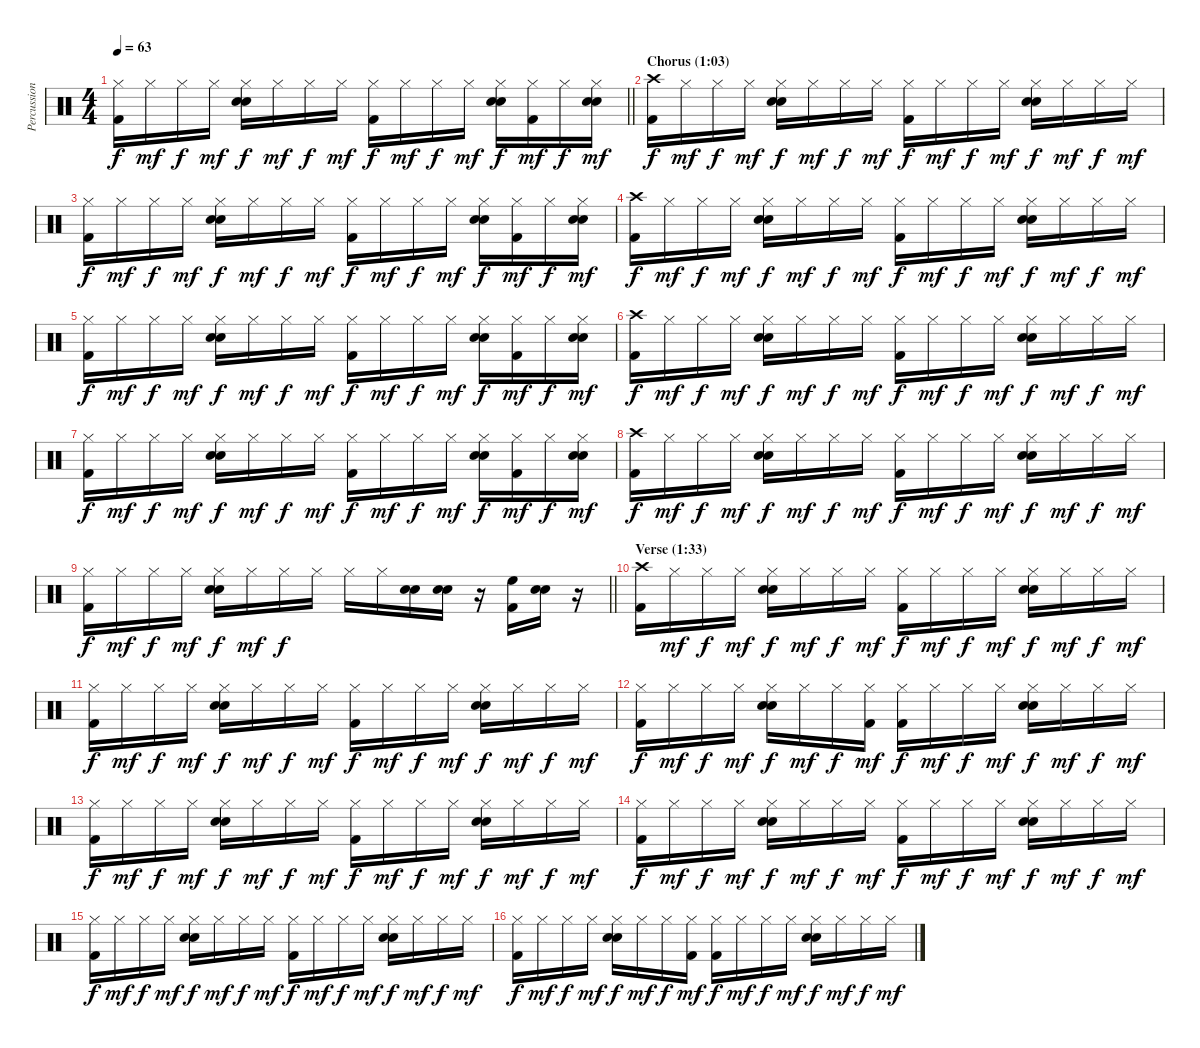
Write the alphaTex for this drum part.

\track ("Percussion" "Percussion") {instrument percussion}
\staff {score}
\articulation defaults
\ts (4 4)
\tempo 63
\clef neutral
\barLineRight lightlight
\ks c
("Hi-Hat (closed)" "Kick (hit) 2").16{dy f} "Hi-Hat (closed)".16{dy mf} "Hi-Hat (closed)".16{dy f} "Hi-Hat (closed)".16{dy mf} ("Hi-Hat (closed)" "Snare (hit) 2" "Electric Snare (hit)").16{dy f} "Hi-Hat (closed)".16{dy mf} "Hi-Hat (closed)".16{dy f} "Hi-Hat (closed)".16{dy mf} ("Hi-Hat (closed)" "Kick (hit) 2").16{dy f} "Hi-Hat (closed)".16{dy mf} "Hi-Hat (closed)".16{dy f} "Hi-Hat (closed)".16{dy mf} ("Hi-Hat (closed)" "Snare (hit) 2" "Electric Snare (hit)").16{dy f} ("Hi-Hat (closed)" "Kick (hit) 2").16{dy mf} "Hi-Hat (closed)".16{dy f} ("Hi-Hat (closed)" "Snare (hit) 2" "Electric Snare (hit)").16{dy mf} |
\section ("" "Chorus (1:03)")
("Crash high (hit)" "Kick (hit) 2").16{dy f} "Hi-Hat (closed)".16{dy mf} "Hi-Hat (closed)".16{dy f} "Hi-Hat (closed)".16{dy mf} ("Hi-Hat (closed)" "Snare (hit) 2" "Electric Snare (hit)").16{dy f} "Hi-Hat (closed)".16{dy mf} "Hi-Hat (closed)".16{dy f} "Hi-Hat (closed)".16{dy mf} ("Hi-Hat (closed)" "Kick (hit) 2").16{dy f} "Hi-Hat (closed)".16{dy mf} "Hi-Hat (closed)".16{dy f} "Hi-Hat (closed)".16{dy mf} ("Hi-Hat (closed)" "Snare (hit) 2" "Electric Snare (hit)").16{dy f} "Hi-Hat (closed)".16{dy mf} "Hi-Hat (closed)".16{dy f} "Hi-Hat (closed)".16{dy mf} |
("Hi-Hat (closed)" "Kick (hit) 2").16{dy f} "Hi-Hat (closed)".16{dy mf} "Hi-Hat (closed)".16{dy f} "Hi-Hat (closed)".16{dy mf} ("Hi-Hat (closed)" "Snare (hit) 2" "Electric Snare (hit)").16{dy f} "Hi-Hat (closed)".16{dy mf} "Hi-Hat (closed)".16{dy f} "Hi-Hat (closed)".16{dy mf} ("Hi-Hat (closed)" "Kick (hit) 2").16{dy f} "Hi-Hat (closed)".16{dy mf} "Hi-Hat (closed)".16{dy f} "Hi-Hat (closed)".16{dy mf} ("Hi-Hat (closed)" "Snare (hit) 2" "Electric Snare (hit)").16{dy f} ("Hi-Hat (closed)" "Kick (hit) 2").16{dy mf} "Hi-Hat (closed)".16{dy f} ("Hi-Hat (closed)" "Snare (hit) 2" "Electric Snare (hit)").16{dy mf} |
("Crash high (hit)" "Kick (hit) 2").16{dy f} "Hi-Hat (closed)".16{dy mf} "Hi-Hat (closed)".16{dy f} "Hi-Hat (closed)".16{dy mf} ("Hi-Hat (closed)" "Snare (hit) 2" "Electric Snare (hit)").16{dy f} "Hi-Hat (closed)".16{dy mf} "Hi-Hat (closed)".16{dy f} "Hi-Hat (closed)".16{dy mf} ("Hi-Hat (closed)" "Kick (hit) 2").16{dy f} "Hi-Hat (closed)".16{dy mf} "Hi-Hat (closed)".16{dy f} "Hi-Hat (closed)".16{dy mf} ("Hi-Hat (closed)" "Snare (hit) 2" "Electric Snare (hit)").16{dy f} "Hi-Hat (closed)".16{dy mf} "Hi-Hat (closed)".16{dy f} "Hi-Hat (closed)".16{dy mf} |
("Hi-Hat (closed)" "Kick (hit) 2").16{dy f} "Hi-Hat (closed)".16{dy mf} "Hi-Hat (closed)".16{dy f} "Hi-Hat (closed)".16{dy mf} ("Hi-Hat (closed)" "Snare (hit) 2" "Electric Snare (hit)").16{dy f} "Hi-Hat (closed)".16{dy mf} "Hi-Hat (closed)".16{dy f} "Hi-Hat (closed)".16{dy mf} ("Hi-Hat (closed)" "Kick (hit) 2").16{dy f} "Hi-Hat (closed)".16{dy mf} "Hi-Hat (closed)".16{dy f} "Hi-Hat (closed)".16{dy mf} ("Hi-Hat (closed)" "Snare (hit) 2" "Electric Snare (hit)").16{dy f} ("Hi-Hat (closed)" "Kick (hit) 2").16{dy mf} "Hi-Hat (closed)".16{dy f} ("Hi-Hat (closed)" "Snare (hit) 2" "Electric Snare (hit)").16{dy mf} |
("Crash high (hit)" "Kick (hit) 2").16{dy f} "Hi-Hat (closed)".16{dy mf} "Hi-Hat (closed)".16{dy f} "Hi-Hat (closed)".16{dy mf} ("Hi-Hat (closed)" "Snare (hit) 2" "Electric Snare (hit)").16{dy f} "Hi-Hat (closed)".16{dy mf} "Hi-Hat (closed)".16{dy f} "Hi-Hat (closed)".16{dy mf} ("Hi-Hat (closed)" "Kick (hit) 2").16{dy f} "Hi-Hat (closed)".16{dy mf} "Hi-Hat (closed)".16{dy f} "Hi-Hat (closed)".16{dy mf} ("Hi-Hat (closed)" "Snare (hit) 2" "Electric Snare (hit)").16{dy f} "Hi-Hat (closed)".16{dy mf} "Hi-Hat (closed)".16{dy f} "Hi-Hat (closed)".16{dy mf} |
("Hi-Hat (closed)" "Kick (hit) 2").16{dy f} "Hi-Hat (closed)".16{dy mf} "Hi-Hat (closed)".16{dy f} "Hi-Hat (closed)".16{dy mf} ("Hi-Hat (closed)" "Snare (hit) 2" "Electric Snare (hit)").16{dy f} "Hi-Hat (closed)".16{dy mf} "Hi-Hat (closed)".16{dy f} "Hi-Hat (closed)".16{dy mf} ("Hi-Hat (closed)" "Kick (hit) 2").16{dy f} "Hi-Hat (closed)".16{dy mf} "Hi-Hat (closed)".16{dy f} "Hi-Hat (closed)".16{dy mf} ("Hi-Hat (closed)" "Snare (hit) 2" "Electric Snare (hit)").16{dy f} ("Hi-Hat (closed)" "Kick (hit) 2").16{dy mf} "Hi-Hat (closed)".16{dy f} ("Hi-Hat (closed)" "Snare (hit) 2" "Electric Snare (hit)").16{dy mf} |
("Crash high (hit)" "Kick (hit) 2").16{dy f} "Hi-Hat (closed)".16{dy mf} "Hi-Hat (closed)".16{dy f} "Hi-Hat (closed)".16{dy mf} ("Hi-Hat (closed)" "Snare (hit) 2" "Electric Snare (hit)").16{dy f} "Hi-Hat (closed)".16{dy mf} "Hi-Hat (closed)".16{dy f} "Hi-Hat (closed)".16{dy mf} ("Hi-Hat (closed)" "Kick (hit) 2").16{dy f} "Hi-Hat (closed)".16{dy mf} "Hi-Hat (closed)".16{dy f} "Hi-Hat (closed)".16{dy mf} ("Hi-Hat (closed)" "Snare (hit) 2" "Electric Snare (hit)").16{dy f} "Hi-Hat (closed)".16{dy mf} "Hi-Hat (closed)".16{dy f} "Hi-Hat (closed)".16{dy mf} |
\barLineRight lightlight
("Hi-Hat (closed)" "Kick (hit) 2").16{dy f} "Hi-Hat (closed)".16{dy mf} "Hi-Hat (closed)".16{dy f} "Hi-Hat (closed)".16{dy mf} ("Hi-Hat (closed)" "Snare (hit) 2" "Electric Snare (hit)").16{dy f} "Hi-Hat (closed)".16{dy mf} "Hi-Hat (closed)".16{dy f} "Hi-Hat (closed)".16 "Hi-Hat (closed)".16 "Hi-Hat (closed)".16 ("Snare (hit) 2" "Electric Snare (hit)").16 ("Snare (hit) 2" "Electric Snare (hit)").16 r.16 ("High Floor Tom (hit)" "Kick (hit) 2").16 ("Snare (hit) 2" "Electric Snare (hit)").16 r.16 |
\section ("" "Verse (1:33)")
("Crash high (hit)" "Kick (hit) 2").16 "Hi-Hat (closed)".16{dy mf} "Hi-Hat (closed)".16{dy f} "Hi-Hat (closed)".16{dy mf} ("Hi-Hat (closed)" "Snare (hit) 2" "Electric Snare (hit)").16{dy f} "Hi-Hat (closed)".16{dy mf} "Hi-Hat (closed)".16{dy f} "Hi-Hat (closed)".16{dy mf} ("Hi-Hat (closed)" "Kick (hit) 2").16{dy f} "Hi-Hat (closed)".16{dy mf} "Hi-Hat (closed)".16{dy f} "Hi-Hat (closed)".16{dy mf} ("Hi-Hat (closed)" "Snare (hit) 2" "Electric Snare (hit)").16{dy f} "Hi-Hat (closed)".16{dy mf} "Hi-Hat (closed)".16{dy f} "Hi-Hat (closed)".16{dy mf} |
("Hi-Hat (closed)" "Kick (hit) 2").16{dy f} "Hi-Hat (closed)".16{dy mf} "Hi-Hat (closed)".16{dy f} "Hi-Hat (closed)".16{dy mf} ("Hi-Hat (closed)" "Snare (hit) 2" "Electric Snare (hit)").16{dy f} "Hi-Hat (closed)".16{dy mf} "Hi-Hat (closed)".16{dy f} "Hi-Hat (closed)".16{dy mf} ("Hi-Hat (closed)" "Kick (hit) 2").16{dy f} "Hi-Hat (closed)".16{dy mf} "Hi-Hat (closed)".16{dy f} "Hi-Hat (closed)".16{dy mf} ("Hi-Hat (closed)" "Snare (hit) 2" "Electric Snare (hit)").16{dy f} "Hi-Hat (closed)".16{dy mf} "Hi-Hat (closed)".16{dy f} "Hi-Hat (closed)".16{dy mf} |
("Hi-Hat (closed)" "Kick (hit) 2").16{dy f} "Hi-Hat (closed)".16{dy mf} "Hi-Hat (closed)".16{dy f} "Hi-Hat (closed)".16{dy mf} ("Hi-Hat (closed)" "Snare (hit) 2" "Electric Snare (hit)").16{dy f} "Hi-Hat (closed)".16{dy mf} "Hi-Hat (closed)".16{dy f} ("Hi-Hat (closed)" "Kick (hit) 2").16{dy mf} ("Hi-Hat (closed)" "Kick (hit) 2").16{dy f} "Hi-Hat (closed)".16{dy mf} "Hi-Hat (closed)".16{dy f} "Hi-Hat (closed)".16{dy mf} ("Hi-Hat (closed)" "Snare (hit) 2" "Electric Snare (hit)").16{dy f} "Hi-Hat (closed)".16{dy mf} "Hi-Hat (closed)".16{dy f} "Hi-Hat (closed)".16{dy mf} |
("Hi-Hat (closed)" "Kick (hit) 2").16{dy f} "Hi-Hat (closed)".16{dy mf} "Hi-Hat (closed)".16{dy f} "Hi-Hat (closed)".16{dy mf} ("Hi-Hat (closed)" "Snare (hit) 2" "Electric Snare (hit)").16{dy f} "Hi-Hat (closed)".16{dy mf} "Hi-Hat (closed)".16{dy f} "Hi-Hat (closed)".16{dy mf} ("Hi-Hat (closed)" "Kick (hit) 2").16{dy f} "Hi-Hat (closed)".16{dy mf} "Hi-Hat (closed)".16{dy f} "Hi-Hat (closed)".16{dy mf} ("Hi-Hat (closed)" "Snare (hit) 2" "Electric Snare (hit)").16{dy f} "Hi-Hat (closed)".16{dy mf} "Hi-Hat (closed)".16{dy f} "Hi-Hat (closed)".16{dy mf} |
("Hi-Hat (closed)" "Kick (hit) 2").16{dy f} "Hi-Hat (closed)".16{dy mf} "Hi-Hat (closed)".16{dy f} "Hi-Hat (closed)".16{dy mf} ("Hi-Hat (closed)" "Snare (hit) 2" "Electric Snare (hit)").16{dy f} "Hi-Hat (closed)".16{dy mf} "Hi-Hat (closed)".16{dy f} "Hi-Hat (closed)".16{dy mf} ("Hi-Hat (closed)" "Kick (hit) 2").16{dy f} "Hi-Hat (closed)".16{dy mf} "Hi-Hat (closed)".16{dy f} "Hi-Hat (closed)".16{dy mf} ("Hi-Hat (closed)" "Snare (hit) 2" "Electric Snare (hit)").16{dy f} "Hi-Hat (closed)".16{dy mf} "Hi-Hat (closed)".16{dy f} "Hi-Hat (closed)".16{dy mf} |
("Hi-Hat (closed)" "Kick (hit) 2").16{dy f} "Hi-Hat (closed)".16{dy mf} "Hi-Hat (closed)".16{dy f} "Hi-Hat (closed)".16{dy mf} ("Hi-Hat (closed)" "Snare (hit) 2" "Electric Snare (hit)").16{dy f} "Hi-Hat (closed)".16{dy mf} "Hi-Hat (closed)".16{dy f} "Hi-Hat (closed)".16{dy mf} ("Hi-Hat (closed)" "Kick (hit) 2").16{dy f} "Hi-Hat (closed)".16{dy mf} "Hi-Hat (closed)".16{dy f} "Hi-Hat (closed)".16{dy mf} ("Hi-Hat (closed)" "Snare (hit) 2" "Electric Snare (hit)").16{dy f} "Hi-Hat (closed)".16{dy mf} "Hi-Hat (closed)".16{dy f} "Hi-Hat (closed)".16{dy mf} |
("Hi-Hat (closed)" "Kick (hit) 2").16{dy f} "Hi-Hat (closed)".16{dy mf} "Hi-Hat (closed)".16{dy f} "Hi-Hat (closed)".16{dy mf} ("Hi-Hat (closed)" "Snare (hit) 2" "Electric Snare (hit)").16{dy f} "Hi-Hat (closed)".16{dy mf} "Hi-Hat (closed)".16{dy f} ("Hi-Hat (closed)" "Kick (hit) 2").16{dy mf} ("Hi-Hat (closed)" "Kick (hit) 2").16{dy f} "Hi-Hat (closed)".16{dy mf} "Hi-Hat (closed)".16{dy f} "Hi-Hat (closed)".16{dy mf} ("Hi-Hat (closed)" "Snare (hit) 2" "Electric Snare (hit)").16{dy f} "Hi-Hat (closed)".16{dy mf} "Hi-Hat (closed)".16{dy f} "Hi-Hat (closed)".16{dy mf}
